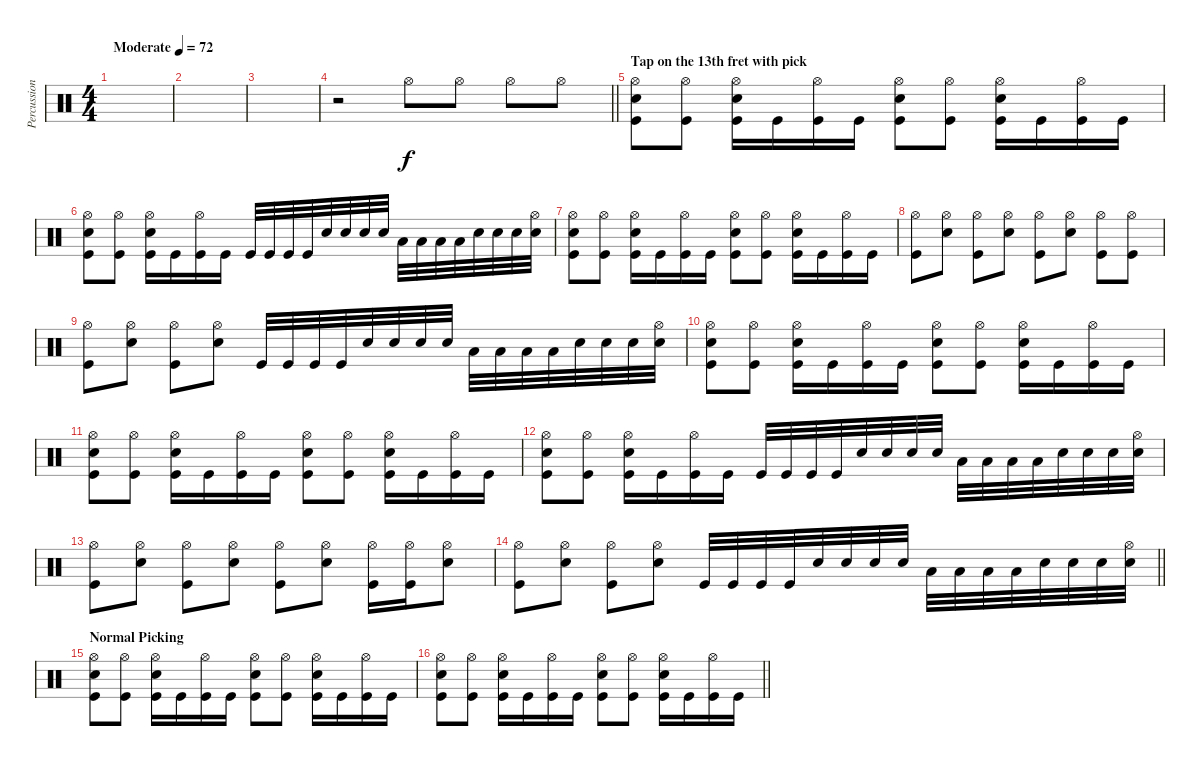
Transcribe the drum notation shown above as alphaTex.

\track ("Percussion" "Percussion") {instrument percussion}
\staff {score}
\articulation defaults
\ts (4 4)
\tempo (72 "Moderate")
\clef neutral
\ks c
|
|
|
\barLineRight lightlight
r.2 "Hi-Hat (open)".8 "Hi-Hat (open)".8 "Hi-Hat (open)".8 "Hi-Hat (open)".8 |
\section ("" "Tap on the 13th fret with pick")
("Kick (hit)" "Snare (hit) 2" "Hi-Hat (open)").8 ("Kick (hit)" "Hi-Hat (open)").8 ("Kick (hit)" "Snare (hit) 2" "Hi-Hat (open)").16 "Kick (hit)".16 ("Kick (hit)" "Hi-Hat (open)").16 "Kick (hit)".16 ("Kick (hit)" "Snare (hit) 2" "Hi-Hat (open)").8 ("Kick (hit)" "Hi-Hat (open)").8 ("Kick (hit)" "Snare (hit) 2" "Hi-Hat (open)").16 "Kick (hit)".16 ("Kick (hit)" "Hi-Hat (open)").16 "Kick (hit)".16 |
("Kick (hit)" "Snare (hit) 2" "Hi-Hat (open)").8 ("Kick (hit)" "Hi-Hat (open)").8 ("Kick (hit)" "Snare (hit) 2" "Hi-Hat (open)").16 "Kick (hit)".16 ("Kick (hit)" "Hi-Hat (open)").16 "Kick (hit)".16 "Kick (hit)".32 "Kick (hit)".32 "Kick (hit)".32 "Kick (hit)".32 "Snare (hit) 2".32 "Snare (hit) 2".32 "Snare (hit) 2".32 "Snare (hit) 2".32 "Low Floor Tom (hit)".32 "Low Floor Tom (hit)".32 "Low Floor Tom (hit)".32 "Low Floor Tom (hit)".32 "Snare (hit) 2".32 "Snare (hit) 2".32 "Snare (hit) 2".32 ("Snare (hit) 2" "Hi-Hat (open)").32 |
("Kick (hit)" "Snare (hit) 2" "Hi-Hat (open)").8 ("Kick (hit)" "Hi-Hat (open)").8 ("Kick (hit)" "Snare (hit) 2" "Hi-Hat (open)").16 "Kick (hit)".16 ("Kick (hit)" "Hi-Hat (open)").16 "Kick (hit)".16 ("Kick (hit)" "Snare (hit) 2" "Hi-Hat (open)").8 ("Kick (hit)" "Hi-Hat (open)").8 ("Kick (hit)" "Snare (hit) 2" "Hi-Hat (open)").16 "Kick (hit)".16 ("Kick (hit)" "Hi-Hat (open)").16 "Kick (hit)".16 |
("Kick (hit)" "Hi-Hat (open)").8 ("Snare (hit) 2" "Hi-Hat (open)").8 ("Kick (hit)" "Hi-Hat (open)").8 ("Snare (hit) 2" "Hi-Hat (open)").8 ("Kick (hit)" "Hi-Hat (open)").8 ("Snare (hit) 2" "Hi-Hat (open)").8 ("Kick (hit)" "Hi-Hat (open)").8 ("Kick (hit)" "Hi-Hat (open)").8 |
("Kick (hit)" "Hi-Hat (open)").8 ("Snare (hit) 2" "Hi-Hat (open)").8 ("Kick (hit)" "Hi-Hat (open)").8 ("Snare (hit) 2" "Hi-Hat (open)").8 "Kick (hit)".32 "Kick (hit)".32 "Kick (hit)".32 "Kick (hit)".32 "Snare (hit) 2".32 "Snare (hit) 2".32 "Snare (hit) 2".32 "Snare (hit) 2".32 "Low Floor Tom (hit)".32 "Low Floor Tom (hit)".32 "Low Floor Tom (hit)".32 "Low Floor Tom (hit)".32 "Snare (hit) 2".32 "Snare (hit) 2".32 "Snare (hit) 2".32 ("Snare (hit) 2" "Hi-Hat (open)").32 |
("Kick (hit)" "Snare (hit) 2" "Hi-Hat (open)").8 ("Kick (hit)" "Hi-Hat (open)").8 ("Kick (hit)" "Snare (hit) 2" "Hi-Hat (open)").16 "Kick (hit)".16 ("Kick (hit)" "Hi-Hat (open)").16 "Kick (hit)".16 ("Kick (hit)" "Snare (hit) 2" "Hi-Hat (open)").8 ("Kick (hit)" "Hi-Hat (open)").8 ("Kick (hit)" "Snare (hit) 2" "Hi-Hat (open)").16 "Kick (hit)".16 ("Kick (hit)" "Hi-Hat (open)").16 "Kick (hit)".16 |
("Kick (hit)" "Snare (hit) 2" "Hi-Hat (open)").8 ("Kick (hit)" "Hi-Hat (open)").8 ("Kick (hit)" "Snare (hit) 2" "Hi-Hat (open)").16 "Kick (hit)".16 ("Kick (hit)" "Hi-Hat (open)").16 "Kick (hit)".16 ("Kick (hit)" "Snare (hit) 2" "Hi-Hat (open)").8 ("Kick (hit)" "Hi-Hat (open)").8 ("Kick (hit)" "Snare (hit) 2" "Hi-Hat (open)").16 "Kick (hit)".16 ("Kick (hit)" "Hi-Hat (open)").16 "Kick (hit)".16 |
("Kick (hit)" "Snare (hit) 2" "Hi-Hat (open)").8 ("Kick (hit)" "Hi-Hat (open)").8 ("Kick (hit)" "Snare (hit) 2" "Hi-Hat (open)").16 "Kick (hit)".16 ("Kick (hit)" "Hi-Hat (open)").16 "Kick (hit)".16 "Kick (hit)".32 "Kick (hit)".32 "Kick (hit)".32 "Kick (hit)".32 "Snare (hit) 2".32 "Snare (hit) 2".32 "Snare (hit) 2".32 "Snare (hit) 2".32 "Low Floor Tom (hit)".32 "Low Floor Tom (hit)".32 "Low Floor Tom (hit)".32 "Low Floor Tom (hit)".32 "Snare (hit) 2".32 "Snare (hit) 2".32 "Snare (hit) 2".32 ("Snare (hit) 2" "Hi-Hat (open)").32 |
("Kick (hit)" "Hi-Hat (open)").8 ("Snare (hit) 2" "Hi-Hat (open)").8 ("Kick (hit)" "Hi-Hat (open)").8 ("Snare (hit) 2" "Hi-Hat (open)").8 ("Kick (hit)" "Hi-Hat (open)").8 ("Snare (hit) 2" "Hi-Hat (open)").8 ("Kick (hit)" "Hi-Hat (open)").16 ("Kick (hit)" "Hi-Hat (open)").16 ("Snare (hit) 2" "Hi-Hat (open)").8 |
\barLineRight lightlight
("Kick (hit)" "Hi-Hat (open)").8 ("Snare (hit) 2" "Hi-Hat (open)").8 ("Kick (hit)" "Hi-Hat (open)").8 ("Snare (hit) 2" "Hi-Hat (open)").8 "Kick (hit)".32 "Kick (hit)".32 "Kick (hit)".32 "Kick (hit)".32 "Snare (hit) 2".32 "Snare (hit) 2".32 "Snare (hit) 2".32 "Snare (hit) 2".32 "Low Floor Tom (hit)".32 "Low Floor Tom (hit)".32 "Low Floor Tom (hit)".32 "Low Floor Tom (hit)".32 "Snare (hit) 2".32 "Snare (hit) 2".32 "Snare (hit) 2".32 ("Snare (hit) 2" "Hi-Hat (open)").32 |
\section ("" "Normal Picking")
("Kick (hit)" "Snare (hit) 2" "Hi-Hat (open)").8 ("Kick (hit)" "Hi-Hat (open)").8 ("Kick (hit)" "Snare (hit) 2" "Hi-Hat (open)").16 "Kick (hit)".16 ("Kick (hit)" "Hi-Hat (open)").16 "Kick (hit)".16 ("Kick (hit)" "Snare (hit) 2" "Hi-Hat (open)").8 ("Kick (hit)" "Hi-Hat (open)").8 ("Kick (hit)" "Snare (hit) 2" "Hi-Hat (open)").16 "Kick (hit)".16 ("Kick (hit)" "Hi-Hat (open)").16 "Kick (hit)".16 |
\barLineRight lightlight
("Kick (hit)" "Snare (hit) 2" "Hi-Hat (open)").8 ("Kick (hit)" "Hi-Hat (open)").8 ("Kick (hit)" "Snare (hit) 2" "Hi-Hat (open)").16 "Kick (hit)".16 ("Kick (hit)" "Hi-Hat (open)").16 "Kick (hit)".16 ("Kick (hit)" "Snare (hit) 2" "Hi-Hat (open)").8 ("Kick (hit)" "Hi-Hat (open)").8 ("Kick (hit)" "Snare (hit) 2" "Hi-Hat (open)").16 "Kick (hit)".16 ("Kick (hit)" "Hi-Hat (open)").16 "Kick (hit)".16
